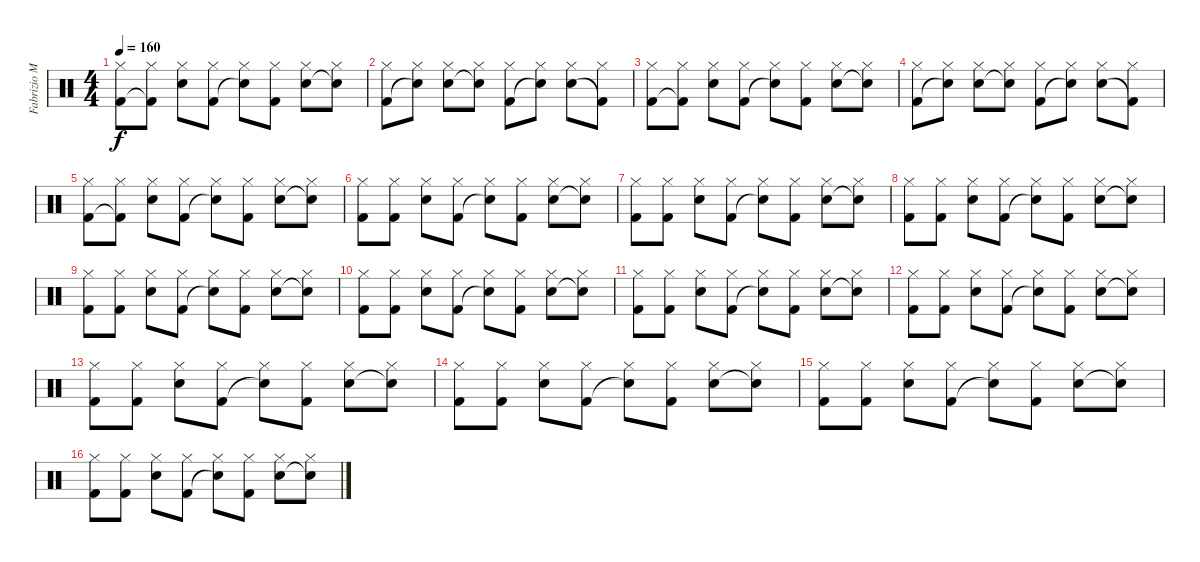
\track ("Fabrizio Moretti" "Fabrizio M") {instrument percussion}
\staff {score}
\articulation defaults
\ts (4 4)
\tempo 160
\clef neutral
\ks c
("Hi-Hat (closed)" "Kick (hit) 2").8{dy f} ("Hi-Hat (closed)" "Kick (hit) 2"{t}).8 ("Hi-Hat (closed)" "Electric Snare (hit)").8 ("Hi-Hat (closed)" "Kick (hit) 2").8 ("Hi-Hat (closed)" "Snare (hit)"{t}).8 ("Hi-Hat (closed)" "Kick (hit) 2").8 ("Hi-Hat (closed)" "Electric Snare (hit)").8 ("Hi-Hat (closed)" "Electric Snare (hit)"{t}).8 |
("Hi-Hat (closed)" "Kick (hit) 2").8 ("Hi-Hat (closed)" "Snare (hit)"{t}).8 ("Hi-Hat (closed)" "Electric Snare (hit)").8 ("Hi-Hat (closed)" "Snare (hit)"{t}).8 ("Hi-Hat (closed)" "Kick (hit) 2").8 ("Hi-Hat (closed)" "Snare (hit)"{t}).8 ("Hi-Hat (closed)" "Electric Snare (hit)").8 ("Hi-Hat (closed)" "Kick (hit) 2"{t}).8 |
("Hi-Hat (closed)" "Kick (hit) 2").8 ("Hi-Hat (closed)" "Kick (hit) 2"{t}).8 ("Hi-Hat (closed)" "Electric Snare (hit)").8 ("Hi-Hat (closed)" "Kick (hit) 2").8 ("Hi-Hat (closed)" "Snare (hit)"{t}).8 ("Hi-Hat (closed)" "Kick (hit) 2").8 ("Hi-Hat (closed)" "Electric Snare (hit)").8 ("Hi-Hat (closed)" "Electric Snare (hit)"{t}).8 |
("Hi-Hat (closed)" "Kick (hit) 2").8 ("Hi-Hat (closed)" "Snare (hit)"{t}).8 ("Hi-Hat (closed)" "Electric Snare (hit)").8 ("Hi-Hat (closed)" "Snare (hit)"{t}).8 ("Hi-Hat (closed)" "Kick (hit) 2").8 ("Hi-Hat (closed)" "Snare (hit)"{t}).8 ("Hi-Hat (closed)" "Electric Snare (hit)").8 ("Hi-Hat (closed)" "Kick (hit) 2"{t}).8 |
("Hi-Hat (closed)" "Kick (hit) 2").8 ("Hi-Hat (closed)" "Kick (hit) 2"{t}).8 ("Hi-Hat (closed)" "Electric Snare (hit)").8 ("Hi-Hat (closed)" "Kick (hit) 2").8 ("Hi-Hat (closed)" "Snare (hit)"{t}).8 ("Hi-Hat (closed)" "Kick (hit) 2").8 ("Hi-Hat (closed)" "Electric Snare (hit)").8 ("Hi-Hat (closed)" "Electric Snare (hit)"{t}).8 |
("Hi-Hat (closed)" "Kick (hit) 2").8 ("Hi-Hat (closed)" "Kick (hit) 2").8 ("Hi-Hat (closed)" "Electric Snare (hit)").8 ("Hi-Hat (closed)" "Kick (hit) 2").8 ("Hi-Hat (closed)" "Snare (hit)"{t}).8 ("Hi-Hat (closed)" "Kick (hit) 2").8 ("Hi-Hat (closed)" "Electric Snare (hit)").8 ("Hi-Hat (closed)" "Snare (hit)"{t}).8 |
("Hi-Hat (closed)" "Kick (hit) 2").8 ("Hi-Hat (closed)" "Kick (hit) 2").8 ("Hi-Hat (closed)" "Electric Snare (hit)").8 ("Hi-Hat (closed)" "Kick (hit) 2").8 ("Hi-Hat (closed)" "Snare (hit)"{t}).8 ("Hi-Hat (closed)" "Kick (hit) 2").8 ("Hi-Hat (closed)" "Electric Snare (hit)").8 ("Hi-Hat (closed)" "Snare (hit)"{t}).8 |
("Hi-Hat (closed)" "Kick (hit) 2").8 ("Hi-Hat (closed)" "Kick (hit) 2").8 ("Hi-Hat (closed)" "Electric Snare (hit)").8 ("Hi-Hat (closed)" "Kick (hit) 2").8 ("Hi-Hat (closed)" "Snare (hit)"{t}).8 ("Hi-Hat (closed)" "Kick (hit) 2").8 ("Hi-Hat (closed)" "Electric Snare (hit)").8 ("Hi-Hat (closed)" "Snare (hit)"{t}).8 |
("Hi-Hat (closed)" "Kick (hit) 2").8 ("Hi-Hat (closed)" "Kick (hit) 2").8 ("Hi-Hat (closed)" "Electric Snare (hit)").8 ("Hi-Hat (closed)" "Kick (hit) 2").8 ("Hi-Hat (closed)" "Snare (hit)"{t}).8 ("Hi-Hat (closed)" "Kick (hit) 2").8 ("Hi-Hat (closed)" "Electric Snare (hit)").8 ("Hi-Hat (closed)" "Snare (hit)"{t}).8 |
("Hi-Hat (closed)" "Kick (hit) 2").8 ("Hi-Hat (closed)" "Kick (hit) 2").8 ("Hi-Hat (closed)" "Electric Snare (hit)").8 ("Hi-Hat (closed)" "Kick (hit) 2").8 ("Hi-Hat (closed)" "Snare (hit)"{t}).8 ("Hi-Hat (closed)" "Kick (hit) 2").8 ("Hi-Hat (closed)" "Electric Snare (hit)").8 ("Hi-Hat (closed)" "Snare (hit)"{t}).8 |
("Hi-Hat (closed)" "Kick (hit) 2").8 ("Hi-Hat (closed)" "Kick (hit) 2").8 ("Hi-Hat (closed)" "Electric Snare (hit)").8 ("Hi-Hat (closed)" "Kick (hit) 2").8 ("Hi-Hat (closed)" "Snare (hit)"{t}).8 ("Hi-Hat (closed)" "Kick (hit) 2").8 ("Hi-Hat (closed)" "Electric Snare (hit)").8 ("Hi-Hat (closed)" "Snare (hit)"{t}).8 |
("Hi-Hat (closed)" "Kick (hit) 2").8 ("Hi-Hat (closed)" "Kick (hit) 2").8 ("Hi-Hat (closed)" "Electric Snare (hit)").8 ("Hi-Hat (closed)" "Kick (hit) 2").8 ("Hi-Hat (closed)" "Snare (hit)"{t}).8 ("Hi-Hat (closed)" "Kick (hit) 2").8 ("Hi-Hat (closed)" "Electric Snare (hit)").8 ("Hi-Hat (closed)" "Snare (hit)"{t}).8 |
("Hi-Hat (closed)" "Kick (hit) 2").8 ("Hi-Hat (closed)" "Kick (hit) 2").8 ("Hi-Hat (closed)" "Electric Snare (hit)").8 ("Hi-Hat (closed)" "Kick (hit) 2").8 ("Hi-Hat (closed)" "Snare (hit)"{t}).8 ("Hi-Hat (closed)" "Kick (hit) 2").8 ("Hi-Hat (closed)" "Electric Snare (hit)").8 ("Hi-Hat (closed)" "Snare (hit)"{t}).8 |
("Hi-Hat (closed)" "Kick (hit) 2").8 ("Hi-Hat (closed)" "Kick (hit) 2").8 ("Hi-Hat (closed)" "Electric Snare (hit)").8 ("Hi-Hat (closed)" "Kick (hit) 2").8 ("Hi-Hat (closed)" "Snare (hit)"{t}).8 ("Hi-Hat (closed)" "Kick (hit) 2").8 ("Hi-Hat (closed)" "Electric Snare (hit)").8 ("Hi-Hat (closed)" "Snare (hit)"{t}).8 |
("Hi-Hat (closed)" "Kick (hit) 2").8 ("Hi-Hat (closed)" "Kick (hit) 2").8 ("Hi-Hat (closed)" "Electric Snare (hit)").8 ("Hi-Hat (closed)" "Kick (hit) 2").8 ("Hi-Hat (closed)" "Snare (hit)"{t}).8 ("Hi-Hat (closed)" "Kick (hit) 2").8 ("Hi-Hat (closed)" "Electric Snare (hit)").8 ("Hi-Hat (closed)" "Snare (hit)"{t}).8 |
("Hi-Hat (closed)" "Kick (hit) 2").8 ("Hi-Hat (closed)" "Kick (hit) 2").8 ("Hi-Hat (closed)" "Electric Snare (hit)").8 ("Hi-Hat (closed)" "Kick (hit) 2").8 ("Hi-Hat (closed)" "Snare (hit)"{t}).8 ("Hi-Hat (closed)" "Kick (hit) 2").8 ("Hi-Hat (closed)" "Electric Snare (hit)").8 ("Hi-Hat (closed)" "Snare (hit)"{t}).8
